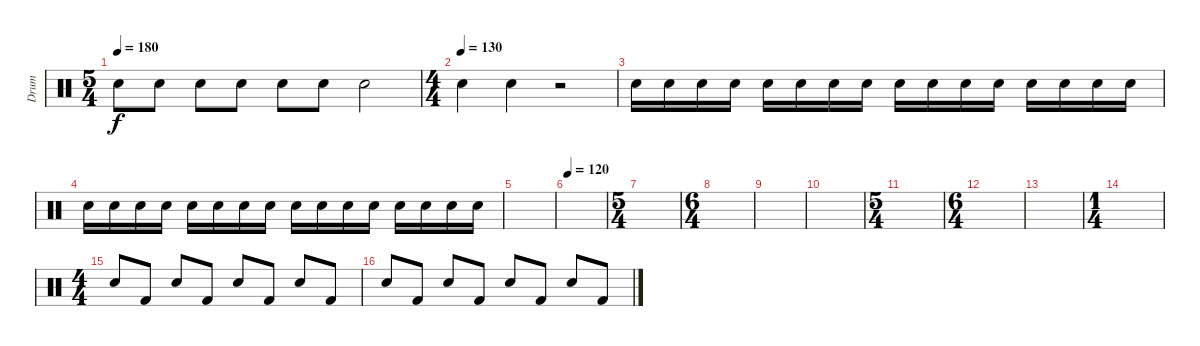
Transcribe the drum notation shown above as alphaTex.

\track ("Drum" "Drum") {instrument percussion}
\staff {score}
\articulation defaults
\ts (5 4)
\tempo 180
\clef neutral
\ks c "Snare (hit) 2".8{dy f} "Snare (hit) 2".8 "Snare (hit) 2".8 "Snare (hit) 2".8 "Snare (hit) 2".8 "Snare (hit) 2".8 "Snare (hit) 2".2
|
\ts (4 4)
\tempo (130)
"Snare (hit) 2".4 "Snare (hit) 2".4 r.2 |
"Snare (hit) 2".16 "Snare (hit) 2".16 "Snare (hit) 2".16 "Snare (hit) 2".16 "Snare (hit) 2".16 "Snare (hit) 2".16 "Snare (hit) 2".16 "Snare (hit) 2".16 "Snare (hit) 2".16 "Snare (hit) 2".16 "Snare (hit) 2".16 "Snare (hit) 2".16 "Snare (hit) 2".16 "Snare (hit) 2".16 "Snare (hit) 2".16 "Snare (hit) 2".16 |
"Snare (hit) 2".16 "Snare (hit) 2".16 "Snare (hit) 2".16 "Snare (hit) 2".16 "Snare (hit) 2".16 "Snare (hit) 2".16 "Snare (hit) 2".16 "Snare (hit) 2".16 "Snare (hit) 2".16 "Snare (hit) 2".16 "Snare (hit) 2".16 "Snare (hit) 2".16 "Snare (hit) 2".16 "Snare (hit) 2".16 "Snare (hit) 2".16 "Snare (hit) 2".16 |
|
\tempo 120
|
\ts (5 4)
|
\ts (6 4)
|
|
|
\ts (5 4)
|
\ts (6 4)
|
|
\ts (1 4)
|
\ts (4 4)
"Snare (hit) 2".8 "Kick (hit) 2".8 "Snare (hit) 2".8 "Kick (hit) 2".8 "Snare (hit) 2".8 "Kick (hit) 2".8 "Snare (hit) 2".8 "Kick (hit) 2".8 |
"Snare (hit) 2".8 "Kick (hit) 2".8 "Snare (hit) 2".8 "Kick (hit) 2".8 "Snare (hit) 2".8 "Kick (hit) 2".8 "Snare (hit) 2".8 "Kick (hit) 2".8
